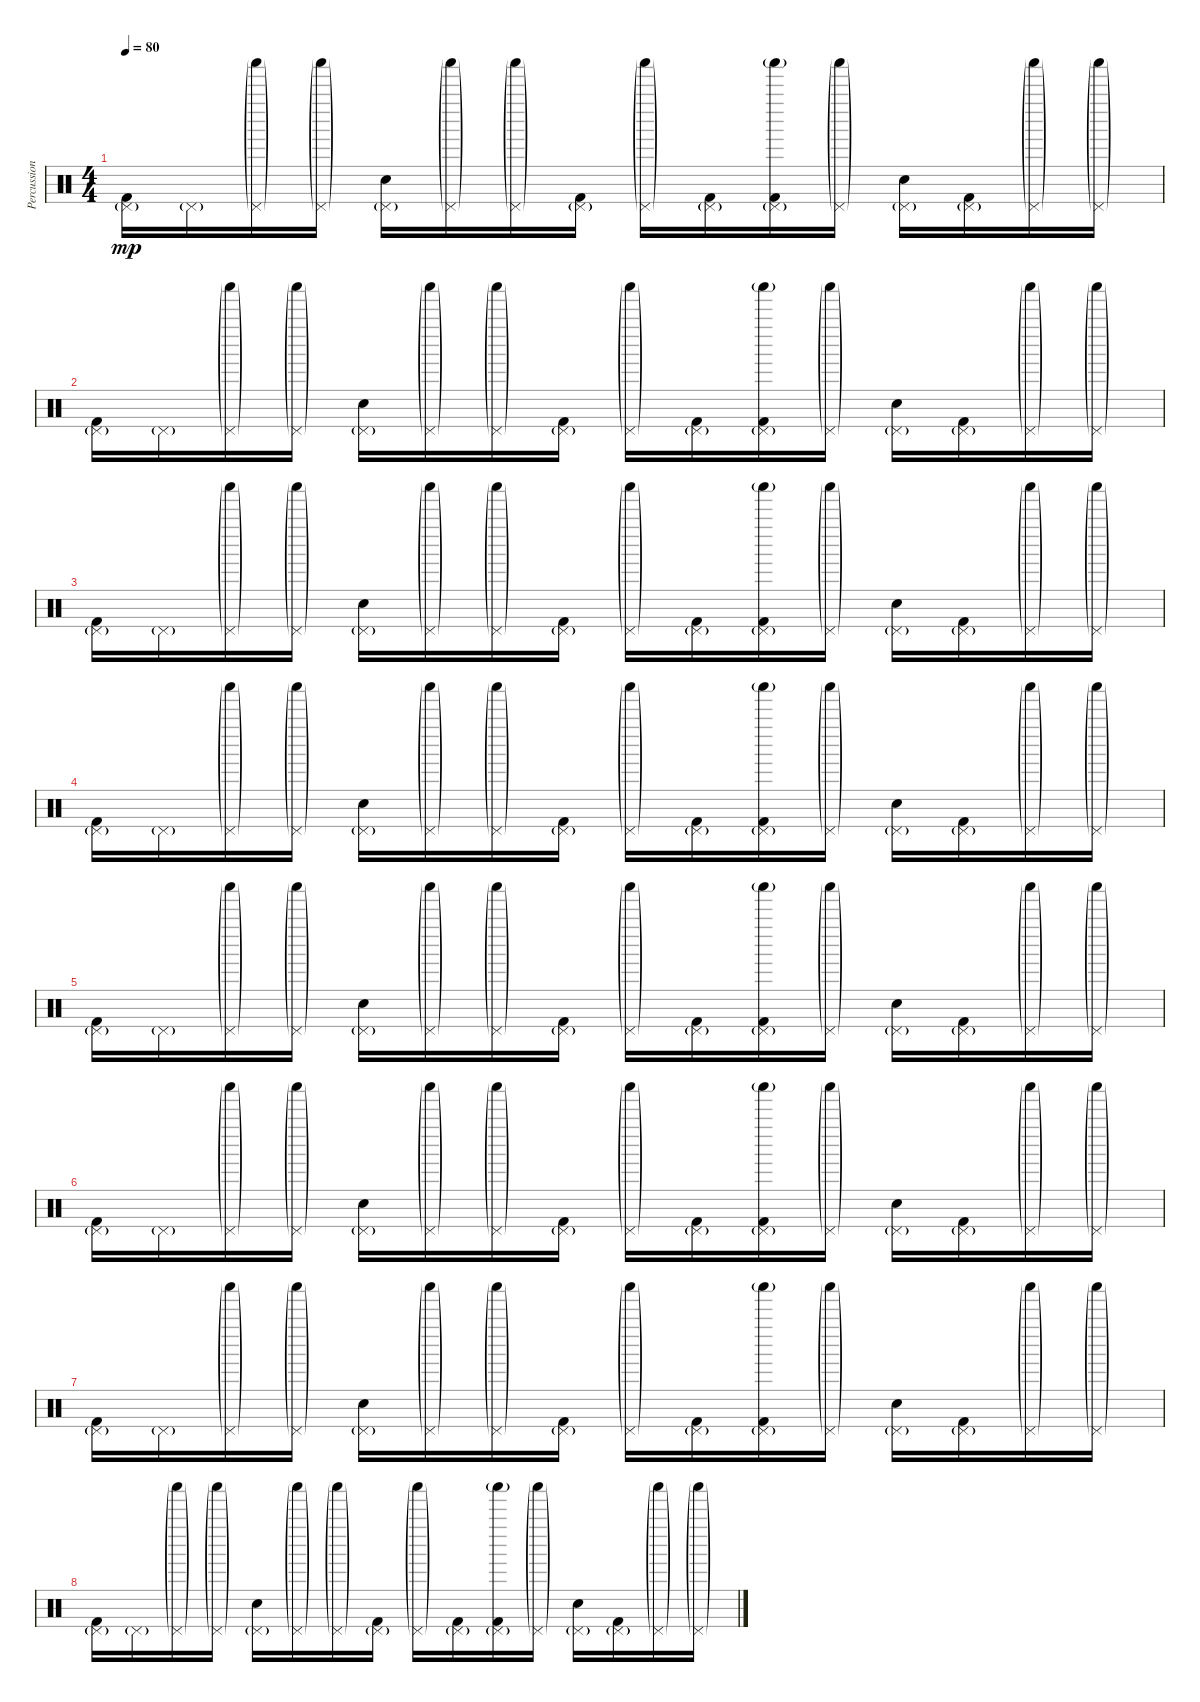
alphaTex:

\track ("Percussion" "Percussion") {instrument percussion}
\staff {score}
\articulation defaults
\ts (4 4)
\tempo 80
\clef neutral
\ks c
("Pedal Hi-Hat (hit)"{g} "Kick (hit) 2").16{dy mp} "Pedal Hi-Hat (hit)"{g}.16 ("Pedal Hi-Hat (hit)"{g} "Shaker (hit)"{g}).16 ("Pedal Hi-Hat (hit)"{g} "Shaker (hit)"{g}).16 ("Pedal Hi-Hat (hit)"{g} "Electric Snare (hit)").16 ("Pedal Hi-Hat (hit)"{g} "Shaker (hit)"{g}).16 ("Pedal Hi-Hat (hit)"{g} "Shaker (hit)"{g}).16 ("Pedal Hi-Hat (hit)"{g} "Kick (hit) 2").16 ("Pedal Hi-Hat (hit)"{g} "Shaker (hit)"{g}).16 ("Pedal Hi-Hat (hit)"{g} "Kick (hit) 2").16 ("Pedal Hi-Hat (hit)"{g} "Shaker (hit)"{g} "Kick (hit) 2").16 ("Pedal Hi-Hat (hit)"{g} "Shaker (hit)"{g}).16 ("Pedal Hi-Hat (hit)"{g} "Electric Snare (hit)").16 ("Pedal Hi-Hat (hit)"{g} "Kick (hit) 2").16 ("Pedal Hi-Hat (hit)"{g} "Shaker (hit)"{g}).16 ("Pedal Hi-Hat (hit)"{g} "Shaker (hit)"{g}).16 |
("Pedal Hi-Hat (hit)"{g} "Kick (hit) 2").16 "Pedal Hi-Hat (hit)"{g}.16 ("Pedal Hi-Hat (hit)"{g} "Shaker (hit)"{g}).16 ("Pedal Hi-Hat (hit)"{g} "Shaker (hit)"{g}).16 ("Pedal Hi-Hat (hit)"{g} "Electric Snare (hit)").16 ("Pedal Hi-Hat (hit)"{g} "Shaker (hit)"{g}).16 ("Pedal Hi-Hat (hit)"{g} "Shaker (hit)"{g}).16 ("Pedal Hi-Hat (hit)"{g} "Kick (hit) 2").16 ("Pedal Hi-Hat (hit)"{g} "Shaker (hit)"{g}).16 ("Pedal Hi-Hat (hit)"{g} "Kick (hit) 2").16 ("Pedal Hi-Hat (hit)"{g} "Shaker (hit)"{g} "Kick (hit) 2").16 ("Pedal Hi-Hat (hit)"{g} "Shaker (hit)"{g}).16 ("Pedal Hi-Hat (hit)"{g} "Electric Snare (hit)").16 ("Pedal Hi-Hat (hit)"{g} "Kick (hit) 2").16 ("Pedal Hi-Hat (hit)"{g} "Shaker (hit)"{g}).16 ("Pedal Hi-Hat (hit)"{g} "Shaker (hit)"{g}).16 |
("Pedal Hi-Hat (hit)"{g} "Kick (hit) 2").16 "Pedal Hi-Hat (hit)"{g}.16 ("Pedal Hi-Hat (hit)"{g} "Shaker (hit)"{g}).16 ("Pedal Hi-Hat (hit)"{g} "Shaker (hit)"{g}).16 ("Pedal Hi-Hat (hit)"{g} "Electric Snare (hit)").16 ("Pedal Hi-Hat (hit)"{g} "Shaker (hit)"{g}).16 ("Pedal Hi-Hat (hit)"{g} "Shaker (hit)"{g}).16 ("Pedal Hi-Hat (hit)"{g} "Kick (hit) 2").16 ("Pedal Hi-Hat (hit)"{g} "Shaker (hit)"{g}).16 ("Pedal Hi-Hat (hit)"{g} "Kick (hit) 2").16 ("Pedal Hi-Hat (hit)"{g} "Shaker (hit)"{g} "Kick (hit) 2").16 ("Pedal Hi-Hat (hit)"{g} "Shaker (hit)"{g}).16 ("Pedal Hi-Hat (hit)"{g} "Electric Snare (hit)").16 ("Pedal Hi-Hat (hit)"{g} "Kick (hit) 2").16 ("Pedal Hi-Hat (hit)"{g} "Shaker (hit)"{g}).16 ("Pedal Hi-Hat (hit)"{g} "Shaker (hit)"{g}).16 |
("Pedal Hi-Hat (hit)"{g} "Kick (hit) 2").16 "Pedal Hi-Hat (hit)"{g}.16 ("Pedal Hi-Hat (hit)"{g} "Shaker (hit)"{g}).16 ("Pedal Hi-Hat (hit)"{g} "Shaker (hit)"{g}).16 ("Pedal Hi-Hat (hit)"{g} "Electric Snare (hit)").16 ("Pedal Hi-Hat (hit)"{g} "Shaker (hit)"{g}).16 ("Pedal Hi-Hat (hit)"{g} "Shaker (hit)"{g}).16 ("Pedal Hi-Hat (hit)"{g} "Kick (hit) 2").16 ("Pedal Hi-Hat (hit)"{g} "Shaker (hit)"{g}).16 ("Pedal Hi-Hat (hit)"{g} "Kick (hit) 2").16 ("Pedal Hi-Hat (hit)"{g} "Shaker (hit)"{g} "Kick (hit) 2").16 ("Pedal Hi-Hat (hit)"{g} "Shaker (hit)"{g}).16 ("Pedal Hi-Hat (hit)"{g} "Electric Snare (hit)").16 ("Pedal Hi-Hat (hit)"{g} "Kick (hit) 2").16 ("Pedal Hi-Hat (hit)"{g} "Shaker (hit)"{g}).16 ("Pedal Hi-Hat (hit)"{g} "Shaker (hit)"{g}).16 |
("Pedal Hi-Hat (hit)"{g} "Kick (hit) 2").16 "Pedal Hi-Hat (hit)"{g}.16 ("Pedal Hi-Hat (hit)"{g} "Shaker (hit)"{g}).16 ("Pedal Hi-Hat (hit)"{g} "Shaker (hit)"{g}).16 ("Pedal Hi-Hat (hit)"{g} "Electric Snare (hit)").16 ("Pedal Hi-Hat (hit)"{g} "Shaker (hit)"{g}).16 ("Pedal Hi-Hat (hit)"{g} "Shaker (hit)"{g}).16 ("Pedal Hi-Hat (hit)"{g} "Kick (hit) 2").16 ("Pedal Hi-Hat (hit)"{g} "Shaker (hit)"{g}).16 ("Pedal Hi-Hat (hit)"{g} "Kick (hit) 2").16 ("Pedal Hi-Hat (hit)"{g} "Shaker (hit)"{g} "Kick (hit) 2").16 ("Pedal Hi-Hat (hit)"{g} "Shaker (hit)"{g}).16 ("Pedal Hi-Hat (hit)"{g} "Electric Snare (hit)").16 ("Pedal Hi-Hat (hit)"{g} "Kick (hit) 2").16 ("Pedal Hi-Hat (hit)"{g} "Shaker (hit)"{g}).16 ("Pedal Hi-Hat (hit)"{g} "Shaker (hit)"{g}).16 |
("Pedal Hi-Hat (hit)"{g} "Kick (hit) 2").16 "Pedal Hi-Hat (hit)"{g}.16 ("Pedal Hi-Hat (hit)"{g} "Shaker (hit)"{g}).16 ("Pedal Hi-Hat (hit)"{g} "Shaker (hit)"{g}).16 ("Pedal Hi-Hat (hit)"{g} "Electric Snare (hit)").16 ("Pedal Hi-Hat (hit)"{g} "Shaker (hit)"{g}).16 ("Pedal Hi-Hat (hit)"{g} "Shaker (hit)"{g}).16 ("Pedal Hi-Hat (hit)"{g} "Kick (hit) 2").16 ("Pedal Hi-Hat (hit)"{g} "Shaker (hit)"{g}).16 ("Pedal Hi-Hat (hit)"{g} "Kick (hit) 2").16 ("Pedal Hi-Hat (hit)"{g} "Shaker (hit)"{g} "Kick (hit) 2").16 ("Pedal Hi-Hat (hit)"{g} "Shaker (hit)"{g}).16 ("Pedal Hi-Hat (hit)"{g} "Electric Snare (hit)").16 ("Pedal Hi-Hat (hit)"{g} "Kick (hit) 2").16 ("Pedal Hi-Hat (hit)"{g} "Shaker (hit)"{g}).16 ("Pedal Hi-Hat (hit)"{g} "Shaker (hit)"{g}).16 |
("Pedal Hi-Hat (hit)"{g} "Kick (hit) 2").16 "Pedal Hi-Hat (hit)"{g}.16 ("Pedal Hi-Hat (hit)"{g} "Shaker (hit)"{g}).16 ("Pedal Hi-Hat (hit)"{g} "Shaker (hit)"{g}).16 ("Pedal Hi-Hat (hit)"{g} "Electric Snare (hit)").16 ("Pedal Hi-Hat (hit)"{g} "Shaker (hit)"{g}).16 ("Pedal Hi-Hat (hit)"{g} "Shaker (hit)"{g}).16 ("Pedal Hi-Hat (hit)"{g} "Kick (hit) 2").16 ("Pedal Hi-Hat (hit)"{g} "Shaker (hit)"{g}).16 ("Pedal Hi-Hat (hit)"{g} "Kick (hit) 2").16 ("Pedal Hi-Hat (hit)"{g} "Shaker (hit)"{g} "Kick (hit) 2").16 ("Pedal Hi-Hat (hit)"{g} "Shaker (hit)"{g}).16 ("Pedal Hi-Hat (hit)"{g} "Electric Snare (hit)").16 ("Pedal Hi-Hat (hit)"{g} "Kick (hit) 2").16 ("Pedal Hi-Hat (hit)"{g} "Shaker (hit)"{g}).16 ("Pedal Hi-Hat (hit)"{g} "Shaker (hit)"{g}).16 |
("Pedal Hi-Hat (hit)"{g} "Kick (hit) 2").16 "Pedal Hi-Hat (hit)"{g}.16 ("Pedal Hi-Hat (hit)"{g} "Shaker (hit)"{g}).16 ("Pedal Hi-Hat (hit)"{g} "Shaker (hit)"{g}).16 ("Pedal Hi-Hat (hit)"{g} "Electric Snare (hit)").16 ("Pedal Hi-Hat (hit)"{g} "Shaker (hit)"{g}).16 ("Pedal Hi-Hat (hit)"{g} "Shaker (hit)"{g}).16 ("Pedal Hi-Hat (hit)"{g} "Kick (hit) 2").16 ("Pedal Hi-Hat (hit)"{g} "Shaker (hit)"{g}).16 ("Pedal Hi-Hat (hit)"{g} "Kick (hit) 2").16 ("Pedal Hi-Hat (hit)"{g} "Shaker (hit)"{g} "Kick (hit) 2").16 ("Pedal Hi-Hat (hit)"{g} "Shaker (hit)"{g}).16 ("Pedal Hi-Hat (hit)"{g} "Electric Snare (hit)").16 ("Pedal Hi-Hat (hit)"{g} "Kick (hit) 2").16 ("Pedal Hi-Hat (hit)"{g} "Shaker (hit)"{g}).16 ("Pedal Hi-Hat (hit)"{g} "Shaker (hit)"{g}).16
